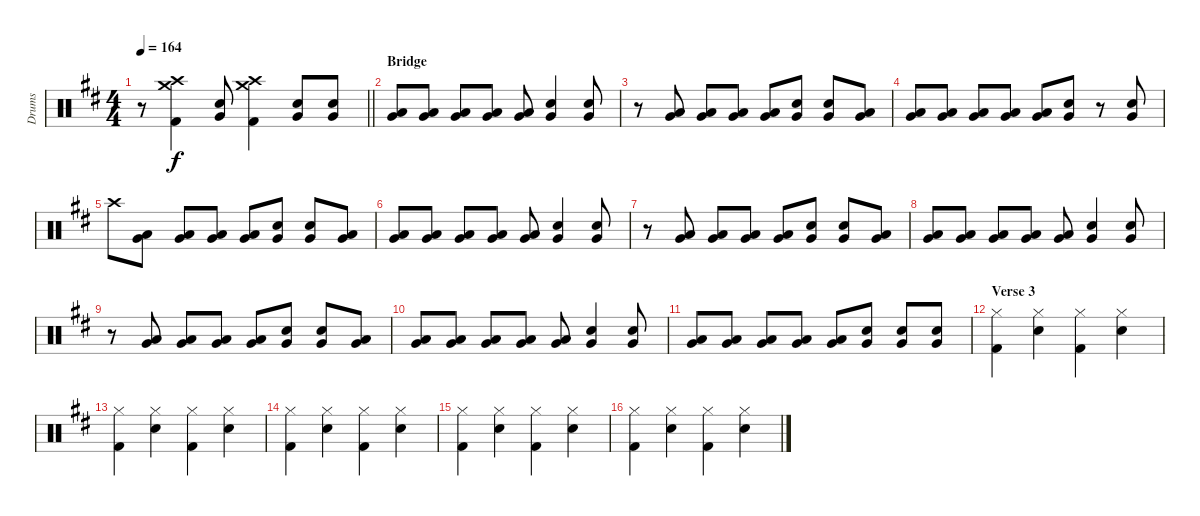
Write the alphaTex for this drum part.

\track ("Drums" "Drums") {instrument percussion}
\staff {score}
\articulation defaults
\ts (4 4)
\tempo 164
\clef neutral
\barLineRight lightlight
\ks d
r.8{dy f} ("Crash high (hit)" "Crash medium (hit)" "Kick (hit) 2").4 ("Very Low Tom (hit)" "Snare (hit) 2").8 ("Crash high (hit)" "Crash medium (hit)" "Kick (hit) 2").4 ("Very Low Tom (hit)" "Snare (hit) 2").8 ("Very Low Tom (hit)" "Snare (hit) 2").8 |
\section ("" "Bridge")
("Very Low Tom (hit)" "Low Floor Tom (hit)").8 ("Very Low Tom (hit)" "Low Floor Tom (hit)").8 ("Very Low Tom (hit)" "Low Floor Tom (hit)").8 ("Very Low Tom (hit)" "Low Floor Tom (hit)").8 ("Very Low Tom (hit)" "Low Floor Tom (hit)").8 ("Very Low Tom (hit)" "Snare (hit) 2").4 ("Very Low Tom (hit)" "Snare (hit) 2").8 |
r.8 ("Very Low Tom (hit)" "Low Floor Tom (hit)").8 ("Very Low Tom (hit)" "Low Floor Tom (hit)").8 ("Very Low Tom (hit)" "Low Floor Tom (hit)").8 ("Very Low Tom (hit)" "Low Floor Tom (hit)").8 ("Very Low Tom (hit)" "Snare (hit) 2").8 ("Very Low Tom (hit)" "Snare (hit) 2").8 ("Very Low Tom (hit)" "Low Floor Tom (hit)").8 |
("Very Low Tom (hit)" "Low Floor Tom (hit)").8 ("Very Low Tom (hit)" "Low Floor Tom (hit)").8 ("Very Low Tom (hit)" "Low Floor Tom (hit)").8 ("Very Low Tom (hit)" "Low Floor Tom (hit)").8 ("Very Low Tom (hit)" "Low Floor Tom (hit)").8 ("Very Low Tom (hit)" "Snare (hit) 2").8 r.8 ("Very Low Tom (hit)" "Snare (hit) 2").8 |
"Crash high (hit)".8 ("Very Low Tom (hit)" "Low Floor Tom (hit)").8 ("Very Low Tom (hit)" "Low Floor Tom (hit)").8 ("Very Low Tom (hit)" "Low Floor Tom (hit)").8 ("Very Low Tom (hit)" "Low Floor Tom (hit)").8 ("Very Low Tom (hit)" "Snare (hit) 2").8 ("Very Low Tom (hit)" "Snare (hit) 2").8 ("Very Low Tom (hit)" "Low Floor Tom (hit)").8 |
("Very Low Tom (hit)" "Low Floor Tom (hit)").8 ("Very Low Tom (hit)" "Low Floor Tom (hit)").8 ("Very Low Tom (hit)" "Low Floor Tom (hit)").8 ("Very Low Tom (hit)" "Low Floor Tom (hit)").8 ("Very Low Tom (hit)" "Low Floor Tom (hit)").8 ("Very Low Tom (hit)" "Snare (hit) 2").4 ("Very Low Tom (hit)" "Snare (hit) 2").8 |
r.8 ("Very Low Tom (hit)" "Low Floor Tom (hit)").8 ("Very Low Tom (hit)" "Low Floor Tom (hit)").8 ("Very Low Tom (hit)" "Low Floor Tom (hit)").8 ("Very Low Tom (hit)" "Low Floor Tom (hit)").8 ("Very Low Tom (hit)" "Snare (hit) 2").8 ("Very Low Tom (hit)" "Snare (hit) 2").8 ("Very Low Tom (hit)" "Low Floor Tom (hit)").8 |
("Very Low Tom (hit)" "Low Floor Tom (hit)").8 ("Very Low Tom (hit)" "Low Floor Tom (hit)").8 ("Very Low Tom (hit)" "Low Floor Tom (hit)").8 ("Very Low Tom (hit)" "Low Floor Tom (hit)").8 ("Very Low Tom (hit)" "Low Floor Tom (hit)").8 ("Very Low Tom (hit)" "Snare (hit) 2").4 ("Very Low Tom (hit)" "Snare (hit) 2").8 |
r.8 ("Very Low Tom (hit)" "Low Floor Tom (hit)").8 ("Very Low Tom (hit)" "Low Floor Tom (hit)").8 ("Very Low Tom (hit)" "Low Floor Tom (hit)").8 ("Very Low Tom (hit)" "Low Floor Tom (hit)").8 ("Very Low Tom (hit)" "Snare (hit) 2").8 ("Very Low Tom (hit)" "Snare (hit) 2").8 ("Very Low Tom (hit)" "Low Floor Tom (hit)").8 |
("Very Low Tom (hit)" "Low Floor Tom (hit)").8 ("Very Low Tom (hit)" "Low Floor Tom (hit)").8 ("Very Low Tom (hit)" "Low Floor Tom (hit)").8 ("Very Low Tom (hit)" "Low Floor Tom (hit)").8 ("Very Low Tom (hit)" "Low Floor Tom (hit)").8 ("Very Low Tom (hit)" "Snare (hit) 2").4 ("Very Low Tom (hit)" "Snare (hit) 2").8 |
("Very Low Tom (hit)" "Low Floor Tom (hit)").8 ("Very Low Tom (hit)" "Low Floor Tom (hit)").8 ("Very Low Tom (hit)" "Low Floor Tom (hit)").8 ("Very Low Tom (hit)" "Low Floor Tom (hit)").8 ("Very Low Tom (hit)" "Low Floor Tom (hit)").8 ("Very Low Tom (hit)" "Snare (hit) 2").8 ("Very Low Tom (hit)" "Snare (hit) 2").8 ("Very Low Tom (hit)" "Snare (hit) 2").8 |
\section ("" "Verse 3")
("Hi-Hat (closed)" "Kick (hit) 2").4 ("Hi-Hat (closed)" "Snare (hit) 2").4 ("Hi-Hat (closed)" "Kick (hit) 2").4 ("Hi-Hat (closed)" "Snare (hit) 2").4 |
("Hi-Hat (closed)" "Kick (hit) 2").4 ("Hi-Hat (closed)" "Snare (hit) 2").4 ("Hi-Hat (closed)" "Kick (hit) 2").4 ("Hi-Hat (closed)" "Snare (hit) 2").4 |
("Hi-Hat (closed)" "Kick (hit) 2").4 ("Hi-Hat (closed)" "Snare (hit) 2").4 ("Hi-Hat (closed)" "Kick (hit) 2").4 ("Hi-Hat (closed)" "Snare (hit) 2").4 |
("Hi-Hat (closed)" "Kick (hit) 2").4 ("Hi-Hat (closed)" "Snare (hit) 2").4 ("Hi-Hat (closed)" "Kick (hit) 2").4 ("Hi-Hat (closed)" "Snare (hit) 2").4 |
("Hi-Hat (closed)" "Kick (hit) 2").4 ("Hi-Hat (closed)" "Snare (hit) 2").4 ("Hi-Hat (closed)" "Kick (hit) 2").4 ("Hi-Hat (closed)" "Snare (hit) 2").4
